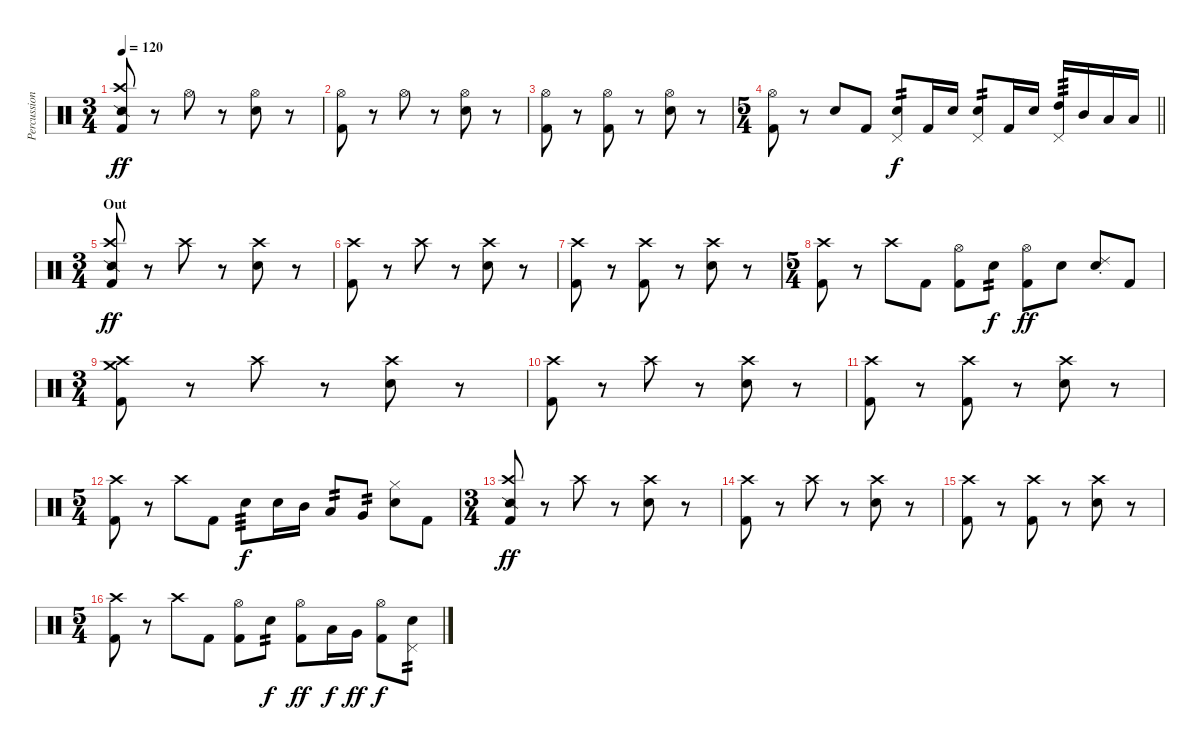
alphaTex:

\track ("Percussion" "Percussion") {instrument percussion}
\staff {score}
\articulation defaults
\ts (3 4)
\tempo 120
\clef neutral
\ks c
("Snare (side stick) 2" "Crash high (hit)" "Kick (hit) 2").8{dy ff} r.8 "Hi-Hat (open)".8 r.8 ("Hi-Hat (open)" "Snare (hit) 2").8 r.8 |
("Hi-Hat (open)" "Kick (hit) 2").8 r.8 "Hi-Hat (open)".8 r.8 ("Hi-Hat (open)" "Snare (hit) 2").8 r.8 |
("Hi-Hat (open)" "Kick (hit) 2").8 r.8 ("Hi-Hat (open)" "Kick (hit) 2").8 r.8 ("Hi-Hat (open)" "Snare (hit) 2").8 r.8 |
\ts (5 4)
\barLineRight lightlight
("Hi-Hat (open)" "Kick (hit) 2").8 r.8 "Snare (hit)".8 "Kick (hit) 2".8 ("Pedal Hi-Hat (hit)" "Snare (hit) 2").8{tp 2 dy f} "Kick (hit) 2".16 "Snare (hit) 2".16 ("Pedal Hi-Hat (hit)" "Snare (hit) 2").8{tp 2} "Kick (hit) 2".16 "Snare (hit) 2".16 ("Pedal Hi-Hat (hit)" "High Tom (hit)").16{tp 3} "Mid Tom (hit)".16 "Low Tom (hit)".16 "Low Tom (hit)".16 |
\ts (3 4)
\section ("" "Out")
("Snare (side stick) 2" "Crash high (hit)" "Kick (hit) 2").8{dy ff} r.8 "Crash high (hit)".8 r.8 ("Crash high (hit)" "Snare (hit) 2").8 r.8 |
("Crash high (hit)" "Kick (hit) 2").8 r.8 "Crash high (hit)".8 r.8 ("Crash high (hit)" "Snare (hit) 2").8 r.8 |
("Crash high (hit)" "Kick (hit) 2").8 r.8 ("Crash high (hit)" "Kick (hit) 2").8 r.8 ("Crash high (hit)" "Snare (hit) 2").8 r.8 |
\ts (5 4)
("Crash high (hit)" "Kick (hit) 2").8 r.8 "Crash high (hit)".8 "Kick (hit) 2".8 ("Hi-Hat (open)" "Kick (hit) 2").8 "Snare (hit) 2".8{tp 2 dy f} ("Hi-Hat (open)" "Kick (hit) 2").8{dy ff} "Snare (hit) 2".8 ("Ride (choke) 2" "Snare (hit) 2").8 "Kick (hit) 2".8 |
\ts (3 4)
("Crash medium (hit)" "Crash high (hit)" "Kick (hit) 2").8 r.8 "Crash high (hit)".8 r.8 ("Crash high (hit)" "Snare (hit) 2").8 r.8 |
("Crash high (hit)" "Kick (hit) 2").8 r.8 "Crash high (hit)".8 r.8 ("Crash high (hit)" "Snare (hit) 2").8 r.8 |
("Crash high (hit)" "Kick (hit) 2").8 r.8 ("Crash high (hit)" "Kick (hit) 2").8 r.8 ("Crash high (hit)" "Snare (hit) 2").8 r.8 |
\ts (5 4)
("Crash high (hit)" "Kick (hit) 2").8 r.8 "Crash high (hit)".8 "Kick (hit) 2".8 "Snare (hit) 2".8{tp 3 dy f} "Snare (hit) 2".16 "Mid Tom (hit)".16 "Low Tom (hit)".8{tp 2} "Very Low Tom (hit)".8{tp 2} ("Hi-Hat (closed)" "Snare (hit) 2").8 "Kick (hit) 2".8 |
\ts (3 4)
("Snare (side stick) 2" "Crash high (hit)" "Kick (hit) 2").8{dy ff} r.8 "Crash high (hit)".8 r.8 ("Crash high (hit)" "Snare (hit) 2").8 r.8 |
("Crash high (hit)" "Kick (hit) 2").8 r.8 "Crash high (hit)".8 r.8 ("Crash high (hit)" "Snare (hit) 2").8 r.8 |
("Crash high (hit)" "Kick (hit) 2").8 r.8 ("Crash high (hit)" "Kick (hit) 2").8 r.8 ("Crash high (hit)" "Snare (hit) 2").8 r.8 |
\ts (5 4)
("Crash high (hit)" "Kick (hit) 2").8 r.8 "Crash high (hit)".8 "Kick (hit) 2".8 ("Hi-Hat (open)" "Kick (hit) 2").8 "Snare (hit) 2".8{tp 2 dy f} ("Hi-Hat (open)" "Kick (hit) 2").8{dy ff} "Low Tom (hit)".16{dy f} "Very Low Tom (hit)".16{dy ff} ("Hi-Hat (open)" "Kick (hit) 2").8{dy f} ("Pedal Hi-Hat (hit)" "Snare (hit) 2").8{tp 2}
